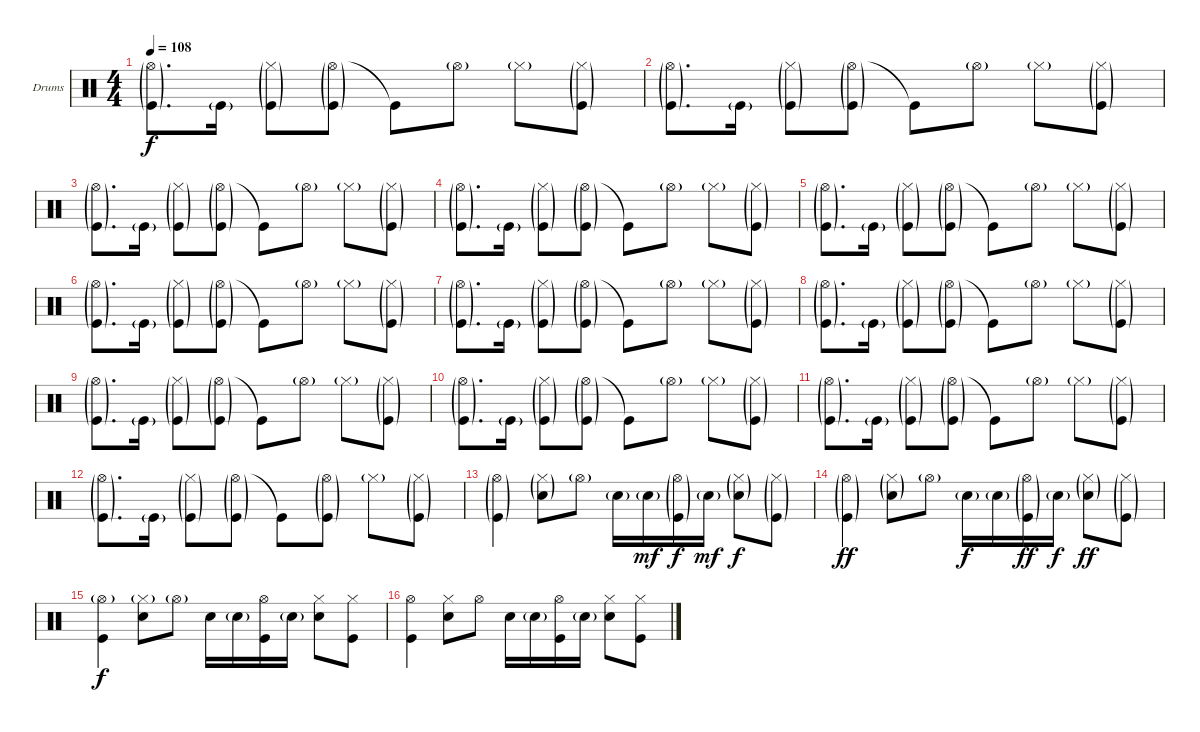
\bracketExtendMode groupsimilarinstruments
\firstSystemTrackNameOrientation horizontal
\otherSystemsTrackNameOrientation horizontal
\track ("Drumkit" "Drums") {instrument percussion}
\staff {score}
\articulation defaults
\ts (4 4)
\tempo 108
\clef neutral
\ks c
("Hi-Hat (open)"{g} "Kick (hit)"{g}).8{d dy f} "Kick (hit)"{g}.16 ("Hi-Hat (closed)"{g} "Kick (hit)"{g}).8 ("Hi-Hat (open)"{g} "Kick (hit)"{g}).8 "Kick (hit)"{t}.8 "Hi-Hat (open)"{g}.8 "Hi-Hat (closed)"{g}.8 ("Hi-Hat (closed)"{g} "Kick (hit)"{g}).8 |
("Hi-Hat (open)"{g} "Kick (hit)"{g}).8{d} "Kick (hit)"{g}.16 ("Hi-Hat (closed)"{g} "Kick (hit)"{g}).8 ("Hi-Hat (open)"{g} "Kick (hit)"{g}).8 "Kick (hit)"{t}.8 "Hi-Hat (open)"{g}.8 "Hi-Hat (closed)"{g}.8 ("Hi-Hat (closed)"{g} "Kick (hit)"{g}).8 |
("Hi-Hat (open)"{g} "Kick (hit)"{g}).8{d} "Kick (hit)"{g}.16 ("Hi-Hat (closed)"{g} "Kick (hit)"{g}).8 ("Hi-Hat (open)"{g} "Kick (hit)"{g}).8 "Kick (hit)"{t}.8 "Hi-Hat (open)"{g}.8 "Hi-Hat (closed)"{g}.8 ("Hi-Hat (closed)"{g} "Kick (hit)"{g}).8 |
("Hi-Hat (open)"{g} "Kick (hit)"{g}).8{d} "Kick (hit)"{g}.16 ("Hi-Hat (closed)"{g} "Kick (hit)"{g}).8 ("Hi-Hat (open)"{g} "Kick (hit)"{g}).8 "Kick (hit)"{t}.8 "Hi-Hat (open)"{g}.8 "Hi-Hat (closed)"{g}.8 ("Hi-Hat (closed)"{g} "Kick (hit)"{g}).8 |
("Hi-Hat (open)"{g} "Kick (hit)"{g}).8{d} "Kick (hit)"{g}.16 ("Hi-Hat (closed)"{g} "Kick (hit)"{g}).8 ("Hi-Hat (open)"{g} "Kick (hit)"{g}).8 "Kick (hit)"{t}.8 "Hi-Hat (open)"{g}.8 "Hi-Hat (closed)"{g}.8 ("Hi-Hat (closed)"{g} "Kick (hit)"{g}).8 |
("Hi-Hat (open)"{g} "Kick (hit)"{g}).8{d} "Kick (hit)"{g}.16 ("Hi-Hat (closed)"{g} "Kick (hit)"{g}).8 ("Hi-Hat (open)"{g} "Kick (hit)"{g}).8 "Kick (hit)"{t}.8 "Hi-Hat (open)"{g}.8 "Hi-Hat (closed)"{g}.8 ("Hi-Hat (closed)"{g} "Kick (hit)"{g}).8 |
("Hi-Hat (open)"{g} "Kick (hit)"{g}).8{d} "Kick (hit)"{g}.16 ("Hi-Hat (closed)"{g} "Kick (hit)"{g}).8 ("Hi-Hat (open)"{g} "Kick (hit)"{g}).8 "Kick (hit)"{t}.8 "Hi-Hat (open)"{g}.8 "Hi-Hat (closed)"{g}.8 ("Hi-Hat (closed)"{g} "Kick (hit)"{g}).8 |
("Hi-Hat (open)"{g} "Kick (hit)"{g}).8{d} "Kick (hit)"{g}.16 ("Hi-Hat (closed)"{g} "Kick (hit)"{g}).8 ("Hi-Hat (open)"{g} "Kick (hit)"{g}).8 "Kick (hit)"{t}.8 "Hi-Hat (open)"{g}.8 "Hi-Hat (closed)"{g}.8 ("Hi-Hat (closed)"{g} "Kick (hit)"{g}).8 |
("Hi-Hat (open)"{g} "Kick (hit)"{g}).8{d} "Kick (hit)"{g}.16 ("Hi-Hat (closed)"{g} "Kick (hit)"{g}).8 ("Hi-Hat (open)"{g} "Kick (hit)"{g}).8 "Kick (hit)"{t}.8 "Hi-Hat (open)"{g}.8 "Hi-Hat (closed)"{g}.8 ("Hi-Hat (closed)"{g} "Kick (hit)"{g}).8 |
("Hi-Hat (open)"{g} "Kick (hit)"{g}).8{d} "Kick (hit)"{g}.16 ("Hi-Hat (closed)"{g} "Kick (hit)"{g}).8 ("Hi-Hat (open)"{g} "Kick (hit)"{g}).8 "Kick (hit)"{t}.8 "Hi-Hat (open)"{g}.8 "Hi-Hat (closed)"{g}.8 ("Hi-Hat (closed)"{g} "Kick (hit)"{g}).8 |
("Hi-Hat (open)"{g} "Kick (hit)"{g}).8{d} "Kick (hit)"{g}.16 ("Hi-Hat (closed)"{g} "Kick (hit)"{g}).8 ("Hi-Hat (open)"{g} "Kick (hit)"{g}).8 "Kick (hit)"{t}.8 "Hi-Hat (open)"{g}.8 "Hi-Hat (closed)"{g}.8 ("Hi-Hat (closed)"{g} "Kick (hit)"{g}).8 |
("Hi-Hat (open)"{g} "Kick (hit)"{g}).8{d} "Kick (hit)"{g}.16 ("Hi-Hat (closed)"{g} "Kick (hit)"{g}).8 ("Hi-Hat (open)"{g} "Kick (hit)"{g}).8 "Kick (hit)"{t}.8 ("Hi-Hat (open)"{g} "Kick (hit)"{g}).8 "Hi-Hat (closed)"{g}.8 ("Hi-Hat (closed)"{g} "Kick (hit)"{g}).8 |
("Hi-Hat (open)"{g} "Kick (hit)"{g}).4 ("Hi-Hat (closed)"{g} "Snare (hit) 2"{g}).8 "Hi-Hat (open)"{g}.8 "Snare (hit) 2"{g}.16 "Snare (hit) 2"{g}.16{dy mf} ("Hi-Hat (open)"{g} "Kick (hit)"{g}).16{dy f} "Snare (hit) 2"{g}.16{dy mf} ("Hi-Hat (closed)"{g} "Snare (hit) 2"{g}).8{dy f} ("Hi-Hat (closed)"{g} "Kick (hit)"{g}).8 |
("Hi-Hat (open)"{g} "Kick (hit)"{g}).4{dy ff} ("Hi-Hat (closed)"{g} "Snare (hit) 2"{g}).8 "Hi-Hat (open)"{g}.8 "Snare (hit) 2"{g}.16{dy f} "Snare (hit) 2"{g}.16 ("Hi-Hat (open)"{g} "Kick (hit)"{g}).16{dy ff} "Snare (hit) 2"{g}.16{dy f} ("Hi-Hat (closed)"{g} "Snare (hit) 2"{g}).8{dy ff} ("Hi-Hat (closed)"{g} "Kick (hit)"{g}).8 |
("Hi-Hat (open)"{g} "Kick (hit)").4{dy f} ("Hi-Hat (closed)"{g} "Snare (hit) 2").8 "Hi-Hat (open)"{g}.8 "Snare (hit) 2".16 "Snare (hit) 2"{g}.16 ("Hi-Hat (open)" "Kick (hit)").16 "Snare (hit) 2"{g}.16 ("Hi-Hat (closed)" "Snare (hit) 2").8 ("Hi-Hat (closed)" "Kick (hit)").8 |
("Hi-Hat (open)" "Kick (hit)").4 ("Hi-Hat (closed)" "Snare (hit) 2").8 "Hi-Hat (open)".8 "Snare (hit) 2".16 "Snare (hit) 2"{g}.16 ("Hi-Hat (open)" "Kick (hit)").16 "Snare (hit) 2"{g}.16 ("Hi-Hat (closed)" "Snare (hit) 2").8 ("Hi-Hat (closed)" "Kick (hit)").8
